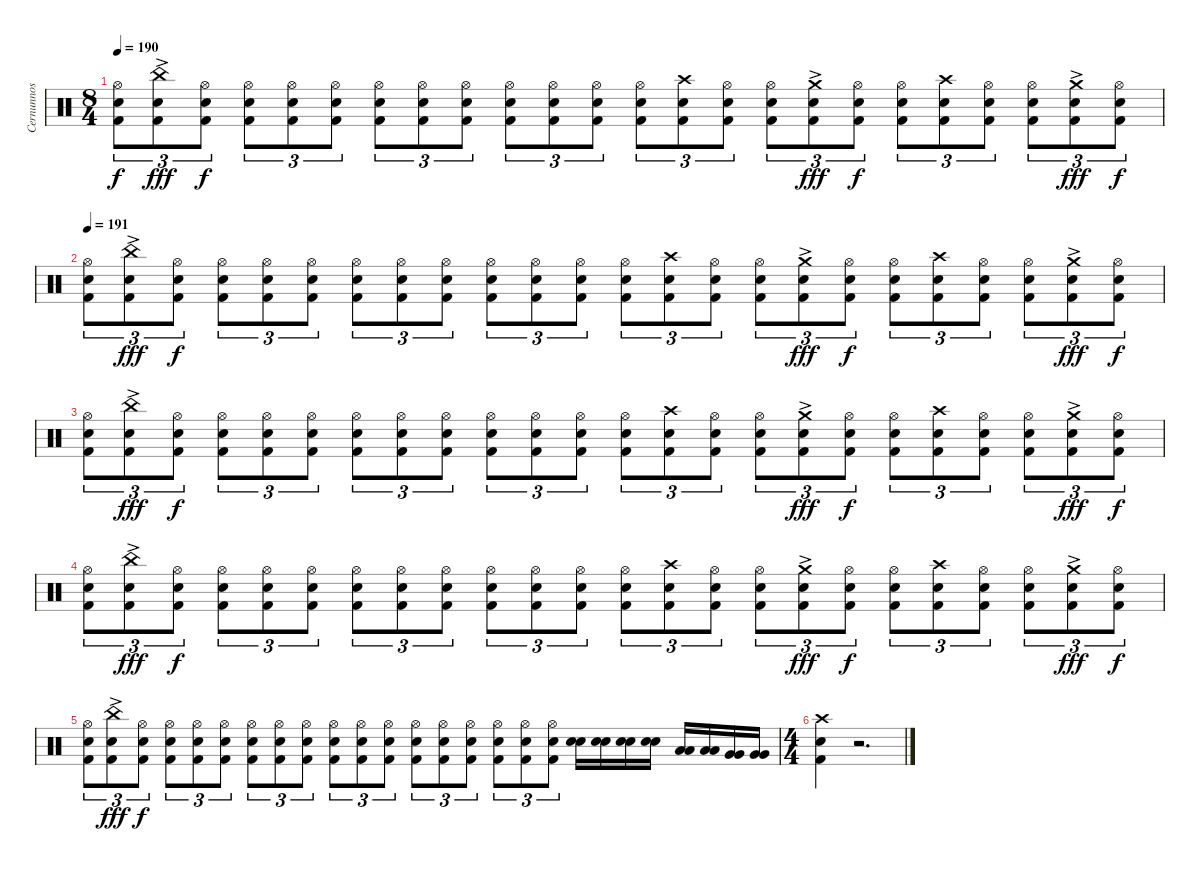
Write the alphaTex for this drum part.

\track ("Cernunnos (in memory)" "Cernunnos ") {instrument percussion}
\staff {score}
\articulation defaults
\ts (8 4)
\tempo 190
\clef neutral
\ks c
("Hi-Hat (open)" "Electric Snare (hit)" "Kick (hit) 2").8{tu (3 2) dy f} ("China (hit)"{ac} "Electric Snare (hit)" "Kick (hit) 2").8{tu (3 2) dy fff} ("Hi-Hat (open)" "Electric Snare (hit)" "Kick (hit) 2").8{tu (3 2) dy f} ("Hi-Hat (open)" "Electric Snare (hit)" "Kick (hit) 2").8{tu (3 2)} ("Hi-Hat (open)" "Electric Snare (hit)" "Kick (hit) 2").8{tu (3 2)} ("Hi-Hat (open)" "Electric Snare (hit)" "Kick (hit) 2").8{tu (3 2)} ("Hi-Hat (open)" "Electric Snare (hit)" "Kick (hit) 2").8{tu (3 2)} ("Hi-Hat (open)" "Electric Snare (hit)" "Kick (hit) 2").8{tu (3 2)} ("Hi-Hat (open)" "Electric Snare (hit)" "Kick (hit) 2").8{tu (3 2)} ("Hi-Hat (open)" "Electric Snare (hit)" "Kick (hit) 2").8{tu (3 2)} ("Hi-Hat (open)" "Electric Snare (hit)" "Kick (hit) 2").8{tu (3 2)} ("Hi-Hat (open)" "Electric Snare (hit)" "Kick (hit) 2").8{tu (3 2)} ("Hi-Hat (open)" "Electric Snare (hit)" "Kick (hit) 2").8{tu (3 2)} ("Crash high (hit)" "Electric Snare (hit)" "Kick (hit) 2").8{tu (3 2)} ("Hi-Hat (open)" "Electric Snare (hit)" "Kick (hit) 2").8{tu (3 2)} ("Hi-Hat (open)" "Electric Snare (hit)" "Kick (hit) 2").8{tu (3 2)} ("Crash medium (hit)"{ac} "Electric Snare (hit)" "Kick (hit) 2").8{tu (3 2) dy fff} ("Hi-Hat (open)" "Electric Snare (hit)" "Kick (hit) 2").8{tu (3 2) dy f} ("Hi-Hat (open)" "Electric Snare (hit)" "Kick (hit) 2").8{tu (3 2)} ("Crash high (hit)" "Electric Snare (hit)" "Kick (hit) 2").8{tu (3 2)} ("Hi-Hat (open)" "Electric Snare (hit)" "Kick (hit) 2").8{tu (3 2)} ("Hi-Hat (open)" "Electric Snare (hit)" "Kick (hit) 2").8{tu (3 2)} ("Crash medium (hit)"{ac} "Electric Snare (hit)" "Kick (hit) 2").8{tu (3 2) dy fff} ("Hi-Hat (open)" "Electric Snare (hit)" "Kick (hit) 2").8{tu (3 2) dy f} |
\tempo 191
("Hi-Hat (open)" "Electric Snare (hit)" "Kick (hit) 2").8{tu (3 2)} ("China (hit)"{ac} "Electric Snare (hit)" "Kick (hit) 2").8{tu (3 2) dy fff} ("Hi-Hat (open)" "Electric Snare (hit)" "Kick (hit) 2").8{tu (3 2) dy f} ("Hi-Hat (open)" "Electric Snare (hit)" "Kick (hit) 2").8{tu (3 2)} ("Hi-Hat (open)" "Electric Snare (hit)" "Kick (hit) 2").8{tu (3 2)} ("Hi-Hat (open)" "Electric Snare (hit)" "Kick (hit) 2").8{tu (3 2)} ("Hi-Hat (open)" "Electric Snare (hit)" "Kick (hit) 2").8{tu (3 2)} ("Hi-Hat (open)" "Electric Snare (hit)" "Kick (hit) 2").8{tu (3 2)} ("Hi-Hat (open)" "Electric Snare (hit)" "Kick (hit) 2").8{tu (3 2)} ("Hi-Hat (open)" "Electric Snare (hit)" "Kick (hit) 2").8{tu (3 2)} ("Hi-Hat (open)" "Electric Snare (hit)" "Kick (hit) 2").8{tu (3 2)} ("Hi-Hat (open)" "Electric Snare (hit)" "Kick (hit) 2").8{tu (3 2)} ("Hi-Hat (open)" "Electric Snare (hit)" "Kick (hit) 2").8{tu (3 2)} ("Crash high (hit)" "Electric Snare (hit)" "Kick (hit) 2").8{tu (3 2)} ("Hi-Hat (open)" "Electric Snare (hit)" "Kick (hit) 2").8{tu (3 2)} ("Hi-Hat (open)" "Electric Snare (hit)" "Kick (hit) 2").8{tu (3 2)} ("Crash medium (hit)"{ac} "Electric Snare (hit)" "Kick (hit) 2").8{tu (3 2) dy fff} ("Hi-Hat (open)" "Electric Snare (hit)" "Kick (hit) 2").8{tu (3 2) dy f} ("Hi-Hat (open)" "Electric Snare (hit)" "Kick (hit) 2").8{tu (3 2)} ("Crash high (hit)" "Electric Snare (hit)" "Kick (hit) 2").8{tu (3 2)} ("Hi-Hat (open)" "Electric Snare (hit)" "Kick (hit) 2").8{tu (3 2)} ("Hi-Hat (open)" "Electric Snare (hit)" "Kick (hit) 2").8{tu (3 2)} ("Crash medium (hit)"{ac} "Electric Snare (hit)" "Kick (hit) 2").8{tu (3 2) dy fff} ("Hi-Hat (open)" "Electric Snare (hit)" "Kick (hit) 2").8{tu (3 2) dy f} |
("Hi-Hat (open)" "Electric Snare (hit)" "Kick (hit) 2").8{tu (3 2)} ("China (hit)"{ac} "Electric Snare (hit)" "Kick (hit) 2").8{tu (3 2) dy fff} ("Hi-Hat (open)" "Electric Snare (hit)" "Kick (hit) 2").8{tu (3 2) dy f} ("Hi-Hat (open)" "Electric Snare (hit)" "Kick (hit) 2").8{tu (3 2)} ("Hi-Hat (open)" "Electric Snare (hit)" "Kick (hit) 2").8{tu (3 2)} ("Hi-Hat (open)" "Electric Snare (hit)" "Kick (hit) 2").8{tu (3 2)} ("Hi-Hat (open)" "Electric Snare (hit)" "Kick (hit) 2").8{tu (3 2)} ("Hi-Hat (open)" "Electric Snare (hit)" "Kick (hit) 2").8{tu (3 2)} ("Hi-Hat (open)" "Electric Snare (hit)" "Kick (hit) 2").8{tu (3 2)} ("Hi-Hat (open)" "Electric Snare (hit)" "Kick (hit) 2").8{tu (3 2)} ("Hi-Hat (open)" "Electric Snare (hit)" "Kick (hit) 2").8{tu (3 2)} ("Hi-Hat (open)" "Electric Snare (hit)" "Kick (hit) 2").8{tu (3 2)} ("Hi-Hat (open)" "Electric Snare (hit)" "Kick (hit) 2").8{tu (3 2)} ("Crash high (hit)" "Electric Snare (hit)" "Kick (hit) 2").8{tu (3 2)} ("Hi-Hat (open)" "Electric Snare (hit)" "Kick (hit) 2").8{tu (3 2)} ("Hi-Hat (open)" "Electric Snare (hit)" "Kick (hit) 2").8{tu (3 2)} ("Crash medium (hit)"{ac} "Electric Snare (hit)" "Kick (hit) 2").8{tu (3 2) dy fff} ("Hi-Hat (open)" "Electric Snare (hit)" "Kick (hit) 2").8{tu (3 2) dy f} ("Hi-Hat (open)" "Electric Snare (hit)" "Kick (hit) 2").8{tu (3 2)} ("Crash high (hit)" "Electric Snare (hit)" "Kick (hit) 2").8{tu (3 2)} ("Hi-Hat (open)" "Electric Snare (hit)" "Kick (hit) 2").8{tu (3 2)} ("Hi-Hat (open)" "Electric Snare (hit)" "Kick (hit) 2").8{tu (3 2)} ("Crash medium (hit)"{ac} "Electric Snare (hit)" "Kick (hit) 2").8{tu (3 2) dy fff} ("Hi-Hat (open)" "Electric Snare (hit)" "Kick (hit) 2").8{tu (3 2) dy f} |
("Hi-Hat (open)" "Electric Snare (hit)" "Kick (hit) 2").8{tu (3 2)} ("China (hit)"{ac} "Electric Snare (hit)" "Kick (hit) 2").8{tu (3 2) dy fff} ("Hi-Hat (open)" "Electric Snare (hit)" "Kick (hit) 2").8{tu (3 2) dy f} ("Hi-Hat (open)" "Electric Snare (hit)" "Kick (hit) 2").8{tu (3 2)} ("Hi-Hat (open)" "Electric Snare (hit)" "Kick (hit) 2").8{tu (3 2)} ("Hi-Hat (open)" "Electric Snare (hit)" "Kick (hit) 2").8{tu (3 2)} ("Hi-Hat (open)" "Electric Snare (hit)" "Kick (hit) 2").8{tu (3 2)} ("Hi-Hat (open)" "Electric Snare (hit)" "Kick (hit) 2").8{tu (3 2)} ("Hi-Hat (open)" "Electric Snare (hit)" "Kick (hit) 2").8{tu (3 2)} ("Hi-Hat (open)" "Electric Snare (hit)" "Kick (hit) 2").8{tu (3 2)} ("Hi-Hat (open)" "Electric Snare (hit)" "Kick (hit) 2").8{tu (3 2)} ("Hi-Hat (open)" "Electric Snare (hit)" "Kick (hit) 2").8{tu (3 2)} ("Hi-Hat (open)" "Electric Snare (hit)" "Kick (hit) 2").8{tu (3 2)} ("Crash high (hit)" "Electric Snare (hit)" "Kick (hit) 2").8{tu (3 2)} ("Hi-Hat (open)" "Electric Snare (hit)" "Kick (hit) 2").8{tu (3 2)} ("Hi-Hat (open)" "Electric Snare (hit)" "Kick (hit) 2").8{tu (3 2)} ("Crash medium (hit)"{ac} "Electric Snare (hit)" "Kick (hit) 2").8{tu (3 2) dy fff} ("Hi-Hat (open)" "Electric Snare (hit)" "Kick (hit) 2").8{tu (3 2) dy f} ("Hi-Hat (open)" "Electric Snare (hit)" "Kick (hit) 2").8{tu (3 2)} ("Crash high (hit)" "Electric Snare (hit)" "Kick (hit) 2").8{tu (3 2)} ("Hi-Hat (open)" "Electric Snare (hit)" "Kick (hit) 2").8{tu (3 2)} ("Hi-Hat (open)" "Electric Snare (hit)" "Kick (hit) 2").8{tu (3 2)} ("Crash medium (hit)"{ac} "Electric Snare (hit)" "Kick (hit) 2").8{tu (3 2) dy fff} ("Hi-Hat (open)" "Electric Snare (hit)" "Kick (hit) 2").8{tu (3 2) dy f} |
("Hi-Hat (open)" "Electric Snare (hit)" "Kick (hit) 2").8{tu (3 2)} ("China (hit)"{ac} "Electric Snare (hit)" "Kick (hit) 2").8{tu (3 2) dy fff} ("Hi-Hat (open)" "Electric Snare (hit)" "Kick (hit) 2").8{tu (3 2) dy f} ("Hi-Hat (open)" "Electric Snare (hit)" "Kick (hit) 2").8{tu (3 2)} ("Hi-Hat (open)" "Electric Snare (hit)" "Kick (hit) 2").8{tu (3 2)} ("Hi-Hat (open)" "Electric Snare (hit)" "Kick (hit) 2").8{tu (3 2)} ("Hi-Hat (open)" "Electric Snare (hit)" "Kick (hit) 2").8{tu (3 2)} ("Hi-Hat (open)" "Electric Snare (hit)" "Kick (hit) 2").8{tu (3 2)} ("Hi-Hat (open)" "Electric Snare (hit)" "Kick (hit) 2").8{tu (3 2)} ("Hi-Hat (open)" "Electric Snare (hit)" "Kick (hit) 2").8{tu (3 2)} ("Hi-Hat (open)" "Electric Snare (hit)" "Kick (hit) 2").8{tu (3 2)} ("Hi-Hat (open)" "Electric Snare (hit)" "Kick (hit) 2").8{tu (3 2)} ("Hi-Hat (open)" "Electric Snare (hit)" "Kick (hit) 2").8{tu (3 2)} ("Hi-Hat (open)" "Electric Snare (hit)" "Kick (hit) 2").8{tu (3 2)} ("Hi-Hat (open)" "Electric Snare (hit)" "Kick (hit) 2").8{tu (3 2)} ("Hi-Hat (open)" "Electric Snare (hit)" "Kick (hit) 2").8{tu (3 2)} ("Hi-Hat (open)" "Electric Snare (hit)" "Kick (hit) 2").8{tu (3 2)} ("Hi-Hat (open)" "Electric Snare (hit)" "Kick (hit) 2").8{tu (3 2)} ("Electric Snare (hit)" "Electric Snare (hit)").16 ("Electric Snare (hit)" "Electric Snare (hit)").16 ("Electric Snare (hit)" "Electric Snare (hit)").16 ("Electric Snare (hit)" "Electric Snare (hit)").16 ("Low Floor Tom (hit)" "Low Floor Tom (hit)").16 ("Low Floor Tom (hit)" "Low Floor Tom (hit)").16 ("Very Low Tom (hit)" "Very Low Tom (hit)").16 ("Very Low Tom (hit)" "Very Low Tom (hit)").16 |
\ts (4 4)
("Crash high (hit)" "Electric Snare (hit)" "Kick (hit) 2").4 r.2{d}
